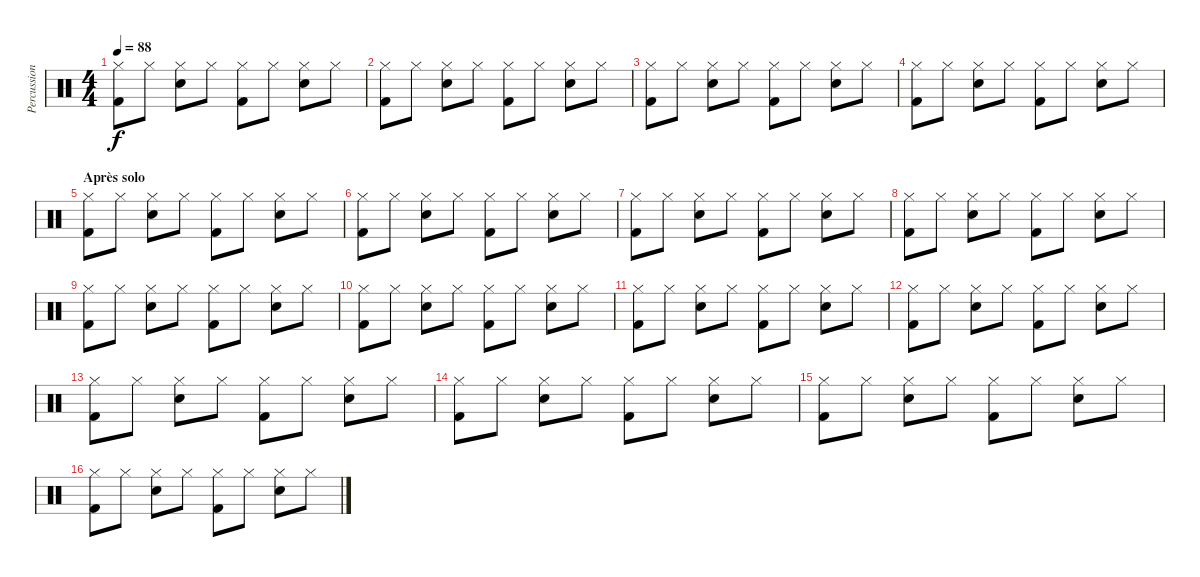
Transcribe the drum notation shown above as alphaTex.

\track ("Percussions" "Percussion") {instrument percussion}
\staff {score}
\articulation defaults
\ts (4 4)
\tempo 88
\clef neutral
\ks c
("Hi-Hat (closed)" "Kick (hit) 2").8{dy f} "Hi-Hat (closed)".8 ("Hi-Hat (closed)" "Snare (hit) 2").8 "Hi-Hat (closed)".8 ("Hi-Hat (closed)" "Kick (hit) 2").8 "Hi-Hat (closed)".8 ("Hi-Hat (closed)" "Snare (hit) 2").8 "Hi-Hat (closed)".8 |
("Hi-Hat (closed)" "Kick (hit) 2").8 "Hi-Hat (closed)".8 ("Hi-Hat (closed)" "Snare (hit) 2").8 "Hi-Hat (closed)".8 ("Hi-Hat (closed)" "Kick (hit) 2").8 "Hi-Hat (closed)".8 ("Hi-Hat (closed)" "Snare (hit) 2").8 "Hi-Hat (closed)".8 |
("Hi-Hat (closed)" "Kick (hit) 2").8 "Hi-Hat (closed)".8 ("Hi-Hat (closed)" "Snare (hit) 2").8 "Hi-Hat (closed)".8 ("Hi-Hat (closed)" "Kick (hit) 2").8 "Hi-Hat (closed)".8 ("Hi-Hat (closed)" "Snare (hit) 2").8 "Hi-Hat (closed)".8 |
("Hi-Hat (closed)" "Kick (hit) 2").8 "Hi-Hat (closed)".8 ("Hi-Hat (closed)" "Snare (hit) 2").8 "Hi-Hat (closed)".8 ("Hi-Hat (closed)" "Kick (hit) 2").8 "Hi-Hat (closed)".8 ("Hi-Hat (closed)" "Snare (hit) 2").8 "Hi-Hat (closed)".8 |
\section ("" "Après solo")
("Hi-Hat (closed)" "Kick (hit) 2").8 "Hi-Hat (closed)".8 ("Hi-Hat (closed)" "Snare (hit) 2").8 "Hi-Hat (closed)".8 ("Hi-Hat (closed)" "Kick (hit) 2").8 "Hi-Hat (closed)".8 ("Hi-Hat (closed)" "Snare (hit) 2").8 "Hi-Hat (closed)".8 |
("Hi-Hat (closed)" "Kick (hit) 2").8 "Hi-Hat (closed)".8 ("Hi-Hat (closed)" "Snare (hit) 2").8 "Hi-Hat (closed)".8 ("Hi-Hat (closed)" "Kick (hit) 2").8 "Hi-Hat (closed)".8 ("Hi-Hat (closed)" "Snare (hit) 2").8 "Hi-Hat (closed)".8 |
("Hi-Hat (closed)" "Kick (hit) 2").8 "Hi-Hat (closed)".8 ("Hi-Hat (closed)" "Snare (hit) 2").8 "Hi-Hat (closed)".8 ("Hi-Hat (closed)" "Kick (hit) 2").8 "Hi-Hat (closed)".8 ("Hi-Hat (closed)" "Snare (hit) 2").8 "Hi-Hat (closed)".8 |
("Hi-Hat (closed)" "Kick (hit) 2").8 "Hi-Hat (closed)".8 ("Hi-Hat (closed)" "Snare (hit) 2").8 "Hi-Hat (closed)".8 ("Hi-Hat (closed)" "Kick (hit) 2").8 "Hi-Hat (closed)".8 ("Hi-Hat (closed)" "Snare (hit) 2").8 "Hi-Hat (closed)".8 |
("Hi-Hat (closed)" "Kick (hit) 2").8 "Hi-Hat (closed)".8 ("Hi-Hat (closed)" "Snare (hit) 2").8 "Hi-Hat (closed)".8 ("Hi-Hat (closed)" "Kick (hit) 2").8 "Hi-Hat (closed)".8 ("Hi-Hat (closed)" "Snare (hit) 2").8 "Hi-Hat (closed)".8 |
("Hi-Hat (closed)" "Kick (hit) 2").8 "Hi-Hat (closed)".8 ("Hi-Hat (closed)" "Snare (hit) 2").8 "Hi-Hat (closed)".8 ("Hi-Hat (closed)" "Kick (hit) 2").8 "Hi-Hat (closed)".8 ("Hi-Hat (closed)" "Snare (hit) 2").8 "Hi-Hat (closed)".8 |
("Hi-Hat (closed)" "Kick (hit) 2").8 "Hi-Hat (closed)".8 ("Hi-Hat (closed)" "Snare (hit) 2").8 "Hi-Hat (closed)".8 ("Hi-Hat (closed)" "Kick (hit) 2").8 "Hi-Hat (closed)".8 ("Hi-Hat (closed)" "Snare (hit) 2").8 "Hi-Hat (closed)".8 |
("Hi-Hat (closed)" "Kick (hit) 2").8 "Hi-Hat (closed)".8 ("Hi-Hat (closed)" "Snare (hit) 2").8 "Hi-Hat (closed)".8 ("Hi-Hat (closed)" "Kick (hit) 2").8 "Hi-Hat (closed)".8 ("Hi-Hat (closed)" "Snare (hit) 2").8 "Hi-Hat (closed)".8 |
("Hi-Hat (closed)" "Kick (hit) 2").8 "Hi-Hat (closed)".8 ("Hi-Hat (closed)" "Snare (hit) 2").8 "Hi-Hat (closed)".8 ("Hi-Hat (closed)" "Kick (hit) 2").8 "Hi-Hat (closed)".8 ("Hi-Hat (closed)" "Snare (hit) 2").8 "Hi-Hat (closed)".8 |
("Hi-Hat (closed)" "Kick (hit) 2").8 "Hi-Hat (closed)".8 ("Hi-Hat (closed)" "Snare (hit) 2").8 "Hi-Hat (closed)".8 ("Hi-Hat (closed)" "Kick (hit) 2").8 "Hi-Hat (closed)".8 ("Hi-Hat (closed)" "Snare (hit) 2").8 "Hi-Hat (closed)".8 |
("Hi-Hat (closed)" "Kick (hit) 2").8 "Hi-Hat (closed)".8 ("Hi-Hat (closed)" "Snare (hit) 2").8 "Hi-Hat (closed)".8 ("Hi-Hat (closed)" "Kick (hit) 2").8 "Hi-Hat (closed)".8 ("Hi-Hat (closed)" "Snare (hit) 2").8 "Hi-Hat (closed)".8 |
("Hi-Hat (closed)" "Kick (hit) 2").8 "Hi-Hat (closed)".8 ("Hi-Hat (closed)" "Snare (hit) 2").8 "Hi-Hat (closed)".8 ("Hi-Hat (closed)" "Kick (hit) 2").8 "Hi-Hat (closed)".8 ("Hi-Hat (closed)" "Snare (hit) 2").8 "Hi-Hat (closed)".8
